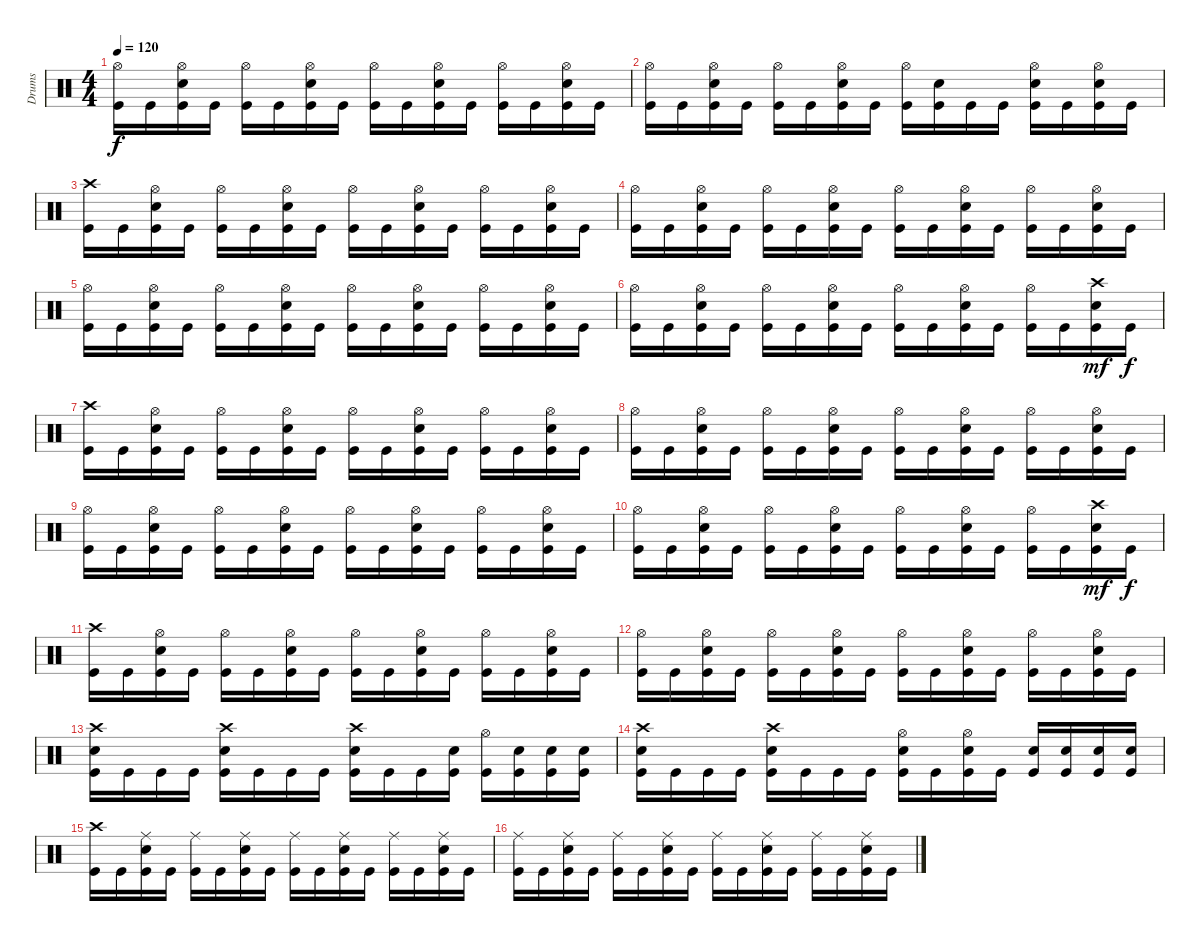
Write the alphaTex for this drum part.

\track ("Drums" "Drums") {instrument percussion}
\staff {score}
\articulation defaults
\ts (4 4)
\tempo 120
\clef neutral
\ks c
("Hi-Hat (open)" "Kick (hit)").16{dy f} "Kick (hit)".16 ("Hi-Hat (open)" "Snare (hit) 2" "Kick (hit)").16 "Kick (hit)".16 ("Hi-Hat (open)" "Kick (hit)").16 "Kick (hit)".16 ("Hi-Hat (open)" "Snare (hit) 2" "Kick (hit)").16 "Kick (hit)".16 ("Hi-Hat (open)" "Kick (hit)").16 "Kick (hit)".16 ("Hi-Hat (open)" "Snare (hit) 2" "Kick (hit)").16 "Kick (hit)".16 ("Hi-Hat (open)" "Kick (hit)").16 "Kick (hit)".16 ("Hi-Hat (open)" "Snare (hit) 2" "Kick (hit)").16 "Kick (hit)".16 |
("Hi-Hat (open)" "Kick (hit)").16 "Kick (hit)".16 ("Hi-Hat (open)" "Snare (hit) 2" "Kick (hit)").16 "Kick (hit)".16 ("Hi-Hat (open)" "Kick (hit)").16 "Kick (hit)".16 ("Hi-Hat (open)" "Snare (hit) 2" "Kick (hit)").16 "Kick (hit)".16 ("Hi-Hat (open)" "Kick (hit)").16 ("Snare (hit) 2" "Kick (hit)").16 "Kick (hit)".16 "Kick (hit)".16 ("Hi-Hat (open)" "Snare (hit) 2" "Kick (hit)").16 "Kick (hit)".16 ("Hi-Hat (open)" "Snare (hit) 2" "Kick (hit)").16 "Kick (hit)".16 |
("Crash high (hit)" "Kick (hit)").16 "Kick (hit)".16 ("Hi-Hat (open)" "Snare (hit) 2" "Kick (hit)").16 "Kick (hit)".16 ("Hi-Hat (open)" "Kick (hit)").16 "Kick (hit)".16 ("Hi-Hat (open)" "Snare (hit) 2" "Kick (hit)").16 "Kick (hit)".16 ("Hi-Hat (open)" "Kick (hit)").16 "Kick (hit)".16 ("Hi-Hat (open)" "Snare (hit) 2" "Kick (hit)").16 "Kick (hit)".16 ("Hi-Hat (open)" "Kick (hit)").16 "Kick (hit)".16 ("Hi-Hat (open)" "Snare (hit) 2" "Kick (hit)").16 "Kick (hit)".16 |
("Hi-Hat (open)" "Kick (hit)").16 "Kick (hit)".16 ("Hi-Hat (open)" "Snare (hit) 2" "Kick (hit)").16 "Kick (hit)".16 ("Hi-Hat (open)" "Kick (hit)").16 "Kick (hit)".16 ("Hi-Hat (open)" "Snare (hit) 2" "Kick (hit)").16 "Kick (hit)".16 ("Hi-Hat (open)" "Kick (hit)").16 "Kick (hit)".16 ("Hi-Hat (open)" "Snare (hit) 2" "Kick (hit)").16 "Kick (hit)".16 ("Hi-Hat (open)" "Kick (hit)").16 "Kick (hit)".16 ("Hi-Hat (open)" "Snare (hit) 2" "Kick (hit)").16 "Kick (hit)".16 |
("Hi-Hat (open)" "Kick (hit)").16 "Kick (hit)".16 ("Hi-Hat (open)" "Snare (hit) 2" "Kick (hit)").16 "Kick (hit)".16 ("Hi-Hat (open)" "Kick (hit)").16 "Kick (hit)".16 ("Hi-Hat (open)" "Snare (hit) 2" "Kick (hit)").16 "Kick (hit)".16 ("Hi-Hat (open)" "Kick (hit)").16 "Kick (hit)".16 ("Hi-Hat (open)" "Snare (hit) 2" "Kick (hit)").16 "Kick (hit)".16 ("Hi-Hat (open)" "Kick (hit)").16 "Kick (hit)".16 ("Hi-Hat (open)" "Snare (hit) 2" "Kick (hit)").16 "Kick (hit)".16 |
("Hi-Hat (open)" "Kick (hit)").16 "Kick (hit)".16 ("Hi-Hat (open)" "Snare (hit) 2" "Kick (hit)").16 "Kick (hit)".16 ("Hi-Hat (open)" "Kick (hit)").16 "Kick (hit)".16 ("Hi-Hat (open)" "Snare (hit) 2" "Kick (hit)").16 "Kick (hit)".16 ("Hi-Hat (open)" "Kick (hit)").16 "Kick (hit)".16 ("Hi-Hat (open)" "Snare (hit) 2" "Kick (hit)").16 "Kick (hit)".16 ("Hi-Hat (open)" "Kick (hit)").16 "Kick (hit)".16 ("Crash high (hit)" "Snare (hit) 2" "Kick (hit)").16{dy mf} "Kick (hit)".16{dy f} |
("Crash high (hit)" "Kick (hit)").16 "Kick (hit)".16 ("Hi-Hat (open)" "Snare (hit) 2" "Kick (hit)").16 "Kick (hit)".16 ("Hi-Hat (open)" "Kick (hit)").16 "Kick (hit)".16 ("Hi-Hat (open)" "Snare (hit) 2" "Kick (hit)").16 "Kick (hit)".16 ("Hi-Hat (open)" "Kick (hit)").16 "Kick (hit)".16 ("Hi-Hat (open)" "Snare (hit) 2" "Kick (hit)").16 "Kick (hit)".16 ("Hi-Hat (open)" "Kick (hit)").16 "Kick (hit)".16 ("Hi-Hat (open)" "Snare (hit) 2" "Kick (hit)").16 "Kick (hit)".16 |
("Hi-Hat (open)" "Kick (hit)").16 "Kick (hit)".16 ("Hi-Hat (open)" "Snare (hit) 2" "Kick (hit)").16 "Kick (hit)".16 ("Hi-Hat (open)" "Kick (hit)").16 "Kick (hit)".16 ("Hi-Hat (open)" "Snare (hit) 2" "Kick (hit)").16 "Kick (hit)".16 ("Hi-Hat (open)" "Kick (hit)").16 "Kick (hit)".16 ("Hi-Hat (open)" "Snare (hit) 2" "Kick (hit)").16 "Kick (hit)".16 ("Hi-Hat (open)" "Kick (hit)").16 "Kick (hit)".16 ("Hi-Hat (open)" "Snare (hit) 2" "Kick (hit)").16 "Kick (hit)".16 |
("Hi-Hat (open)" "Kick (hit)").16 "Kick (hit)".16 ("Hi-Hat (open)" "Snare (hit) 2" "Kick (hit)").16 "Kick (hit)".16 ("Hi-Hat (open)" "Kick (hit)").16 "Kick (hit)".16 ("Hi-Hat (open)" "Snare (hit) 2" "Kick (hit)").16 "Kick (hit)".16 ("Hi-Hat (open)" "Kick (hit)").16 "Kick (hit)".16 ("Hi-Hat (open)" "Snare (hit) 2" "Kick (hit)").16 "Kick (hit)".16 ("Hi-Hat (open)" "Kick (hit)").16 "Kick (hit)".16 ("Hi-Hat (open)" "Snare (hit) 2" "Kick (hit)").16 "Kick (hit)".16 |
("Hi-Hat (open)" "Kick (hit)").16 "Kick (hit)".16 ("Hi-Hat (open)" "Snare (hit) 2" "Kick (hit)").16 "Kick (hit)".16 ("Hi-Hat (open)" "Kick (hit)").16 "Kick (hit)".16 ("Hi-Hat (open)" "Snare (hit) 2" "Kick (hit)").16 "Kick (hit)".16 ("Hi-Hat (open)" "Kick (hit)").16 "Kick (hit)".16 ("Hi-Hat (open)" "Snare (hit) 2" "Kick (hit)").16 "Kick (hit)".16 ("Hi-Hat (open)" "Kick (hit)").16 "Kick (hit)".16 ("Crash high (hit)" "Snare (hit) 2" "Kick (hit)").16{dy mf} "Kick (hit)".16{dy f} |
("Crash high (hit)" "Kick (hit)").16 "Kick (hit)".16 ("Hi-Hat (open)" "Snare (hit) 2" "Kick (hit)").16 "Kick (hit)".16 ("Hi-Hat (open)" "Kick (hit)").16 "Kick (hit)".16 ("Hi-Hat (open)" "Snare (hit) 2" "Kick (hit)").16 "Kick (hit)".16 ("Hi-Hat (open)" "Kick (hit)").16 "Kick (hit)".16 ("Hi-Hat (open)" "Snare (hit) 2" "Kick (hit)").16 "Kick (hit)".16 ("Hi-Hat (open)" "Kick (hit)").16 "Kick (hit)".16 ("Hi-Hat (open)" "Snare (hit) 2" "Kick (hit)").16 "Kick (hit)".16 |
("Hi-Hat (open)" "Kick (hit)").16 "Kick (hit)".16 ("Hi-Hat (open)" "Snare (hit) 2" "Kick (hit)").16 "Kick (hit)".16 ("Hi-Hat (open)" "Kick (hit)").16 "Kick (hit)".16 ("Hi-Hat (open)" "Snare (hit) 2" "Kick (hit)").16 "Kick (hit)".16 ("Hi-Hat (open)" "Kick (hit)").16 "Kick (hit)".16 ("Hi-Hat (open)" "Snare (hit) 2" "Kick (hit)").16 "Kick (hit)".16 ("Hi-Hat (open)" "Kick (hit)").16 "Kick (hit)".16 ("Hi-Hat (open)" "Snare (hit) 2" "Kick (hit)").16 "Kick (hit)".16 |
("Crash high (hit)" "Snare (hit) 2" "Kick (hit)").16 "Kick (hit)".16 "Kick (hit)".16 "Kick (hit)".16 ("Crash high (hit)" "Snare (hit) 2" "Kick (hit)").16 "Kick (hit)".16 "Kick (hit)".16 "Kick (hit)".16 ("Crash high (hit)" "Snare (hit) 2" "Kick (hit)").16 "Kick (hit)".16 "Kick (hit)".16 ("Snare (hit) 2" "Kick (hit)").16 ("Hi-Hat (open)" "Kick (hit)").16 ("Snare (hit) 2" "Kick (hit)").16 ("Snare (hit) 2" "Kick (hit)").16 ("Snare (hit) 2" "Kick (hit)").16 |
("Crash high (hit)" "Snare (hit) 2" "Kick (hit)").16 "Kick (hit)".16 "Kick (hit)".16 "Kick (hit)".16 ("Crash high (hit)" "Snare (hit) 2" "Kick (hit)").16 "Kick (hit)".16 "Kick (hit)".16 "Kick (hit)".16 ("Hi-Hat (open)" "Snare (hit) 2" "Kick (hit)").16 "Kick (hit)".16 ("Hi-Hat (open)" "Snare (hit) 2" "Kick (hit)").16 "Kick (hit)".16 ("Snare (hit) 2" "Kick (hit)").16 ("Snare (hit) 2" "Kick (hit)").16 ("Snare (hit) 2" "Kick (hit)").16 ("Snare (hit) 2" "Kick (hit)").16 |
("Crash high (hit)" "Kick (hit)").16 "Kick (hit)".16 ("Ride (middle)" "Snare (hit) 2" "Kick (hit)").16 "Kick (hit)".16 ("Ride (middle)" "Kick (hit)").16 "Kick (hit)".16 ("Ride (middle)" "Snare (hit) 2" "Kick (hit)").16 "Kick (hit)".16 ("Ride (middle)" "Kick (hit)").16 "Kick (hit)".16 ("Ride (middle)" "Snare (hit) 2" "Kick (hit)").16 "Kick (hit)".16 ("Ride (middle)" "Kick (hit)").16 "Kick (hit)".16 ("Ride (middle)" "Snare (hit) 2" "Kick (hit)").16 "Kick (hit)".16 |
("Ride (middle)" "Kick (hit)").16 "Kick (hit)".16 ("Ride (middle)" "Snare (hit) 2" "Kick (hit)").16 "Kick (hit)".16 ("Ride (middle)" "Kick (hit)").16 "Kick (hit)".16 ("Ride (middle)" "Snare (hit) 2" "Kick (hit)").16 "Kick (hit)".16 ("Ride (middle)" "Kick (hit)").16 "Kick (hit)".16 ("Ride (middle)" "Snare (hit) 2" "Kick (hit)").16 "Kick (hit)".16 ("Ride (middle)" "Kick (hit)").16 "Kick (hit)".16 ("Ride (middle)" "Snare (hit) 2" "Kick (hit)").16 "Kick (hit)".16
